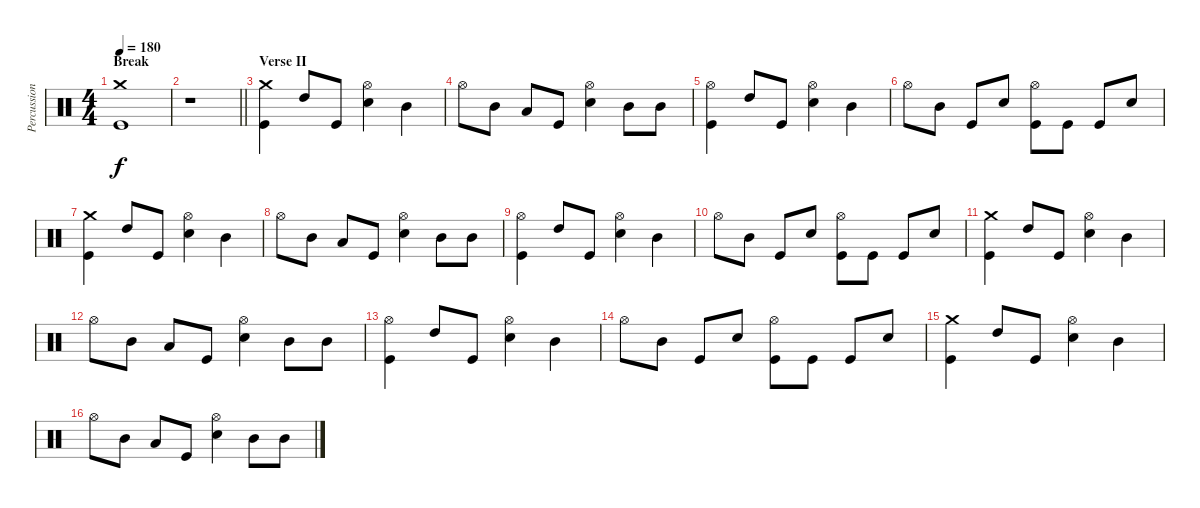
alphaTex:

\track ("Percussion" "Percussion") {instrument percussion}
\staff {score}
\articulation defaults
\ts (4 4)
\section ("" "Break")
\tempo 180
\clef neutral
\ks c
("Crash medium (hit)" "Kick (hit)").1{dy f} |
\barLineRight lightlight
r.1 |
\section ("" "Verse II")
("Crash medium (hit)" "Kick (hit)").4 "High Tom (hit)".8 "Kick (hit)".8 ("Hi-Hat (open)" "Electric Snare (hit)").4 "Mid Tom (hit)".4 |
"Hi-Hat (open)".8 "Mid Tom (hit)".8 "Low Tom (hit)".8 "Kick (hit)".8 ("Hi-Hat (open)" "Electric Snare (hit)").4 "Mid Tom (hit)".8 "Mid Tom (hit)".8 |
("Hi-Hat (open)" "Kick (hit)").4 "High Tom (hit)".8 "Kick (hit)".8 ("Hi-Hat (open)" "Electric Snare (hit)").4 "Mid Tom (hit)".4 |
"Hi-Hat (open)".8 "Mid Tom (hit)".8 "Kick (hit)".8 "Electric Snare (hit)".8 ("Hi-Hat (open)" "Kick (hit)").8 "Kick (hit)".8 "Kick (hit)".8 "Electric Snare (hit)".8 |
("Crash medium (hit)" "Kick (hit)").4 "High Tom (hit)".8 "Kick (hit)".8 ("Hi-Hat (open)" "Electric Snare (hit)").4 "Mid Tom (hit)".4 |
"Hi-Hat (open)".8 "Mid Tom (hit)".8 "Low Tom (hit)".8 "Kick (hit)".8 ("Hi-Hat (open)" "Electric Snare (hit)").4 "Mid Tom (hit)".8 "Mid Tom (hit)".8 |
("Hi-Hat (open)" "Kick (hit)").4 "High Tom (hit)".8 "Kick (hit)".8 ("Hi-Hat (open)" "Electric Snare (hit)").4 "Mid Tom (hit)".4 |
"Hi-Hat (open)".8 "Mid Tom (hit)".8 "Kick (hit)".8 "Electric Snare (hit)".8 ("Hi-Hat (open)" "Kick (hit)").8 "Kick (hit)".8 "Kick (hit)".8 "Electric Snare (hit)".8 |
("Crash medium (hit)" "Kick (hit)").4 "High Tom (hit)".8 "Kick (hit)".8 ("Hi-Hat (open)" "Electric Snare (hit)").4 "Mid Tom (hit)".4 |
"Hi-Hat (open)".8 "Mid Tom (hit)".8 "Low Tom (hit)".8 "Kick (hit)".8 ("Hi-Hat (open)" "Electric Snare (hit)").4 "Mid Tom (hit)".8 "Mid Tom (hit)".8 |
("Hi-Hat (open)" "Kick (hit)").4 "High Tom (hit)".8 "Kick (hit)".8 ("Hi-Hat (open)" "Electric Snare (hit)").4 "Mid Tom (hit)".4 |
"Hi-Hat (open)".8 "Mid Tom (hit)".8 "Kick (hit)".8 "Electric Snare (hit)".8 ("Hi-Hat (open)" "Kick (hit)").8 "Kick (hit)".8 "Kick (hit)".8 "Electric Snare (hit)".8 |
("Crash medium (hit)" "Kick (hit)").4 "High Tom (hit)".8 "Kick (hit)".8 ("Hi-Hat (open)" "Electric Snare (hit)").4 "Mid Tom (hit)".4 |
"Hi-Hat (open)".8 "Mid Tom (hit)".8 "Low Tom (hit)".8 "Kick (hit)".8 ("Hi-Hat (open)" "Electric Snare (hit)").4 "Mid Tom (hit)".8 "Mid Tom (hit)".8
